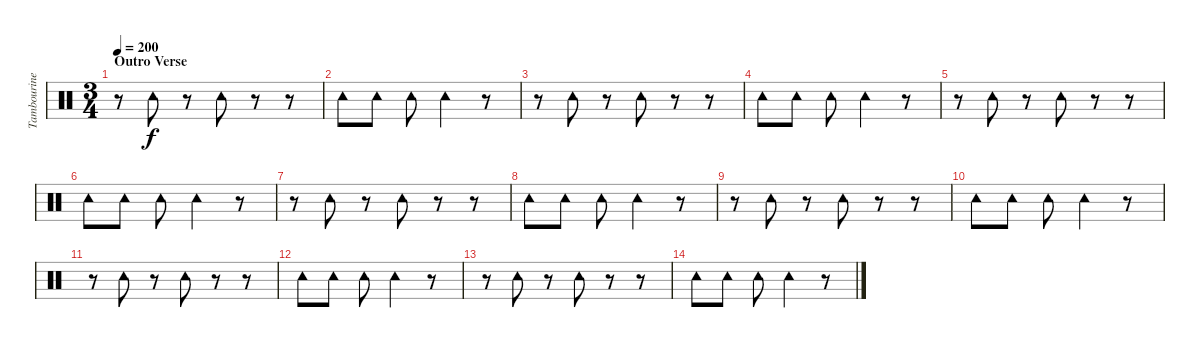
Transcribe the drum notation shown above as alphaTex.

\track ("Tambourine" "Tambourine") {instrument percussion}
\staff {score}
\articulation defaults
\ts (3 4)
\section ("" "Outro Verse")
\tempo 200
\clef neutral
\ks c
r.8{dy f} "Tambourine (hit)".8 r.8 "Tambourine (hit)".8 r.8 r.8 |
"Tambourine (hit)".8 "Tambourine (hit)".8 "Tambourine (hit)".8 "Tambourine (hit)".4 r.8 |
r.8 "Tambourine (hit)".8 r.8 "Tambourine (hit)".8 r.8 r.8 |
"Tambourine (hit)".8 "Tambourine (hit)".8 "Tambourine (hit)".8 "Tambourine (hit)".4 r.8 |
r.8 "Tambourine (hit)".8 r.8 "Tambourine (hit)".8 r.8 r.8 |
"Tambourine (hit)".8 "Tambourine (hit)".8 "Tambourine (hit)".8 "Tambourine (hit)".4 r.8 |
r.8 "Tambourine (hit)".8 r.8 "Tambourine (hit)".8 r.8 r.8 |
"Tambourine (hit)".8 "Tambourine (hit)".8 "Tambourine (hit)".8 "Tambourine (hit)".4 r.8 |
r.8 "Tambourine (hit)".8 r.8 "Tambourine (hit)".8 r.8 r.8 |
"Tambourine (hit)".8 "Tambourine (hit)".8 "Tambourine (hit)".8 "Tambourine (hit)".4 r.8 |
r.8 "Tambourine (hit)".8 r.8 "Tambourine (hit)".8 r.8 r.8 |
"Tambourine (hit)".8 "Tambourine (hit)".8 "Tambourine (hit)".8 "Tambourine (hit)".4 r.8 |
r.8 "Tambourine (hit)".8 r.8 "Tambourine (hit)".8 r.8 r.8 |
"Tambourine (hit)".8 "Tambourine (hit)".8 "Tambourine (hit)".8 "Tambourine (hit)".4 r.8
